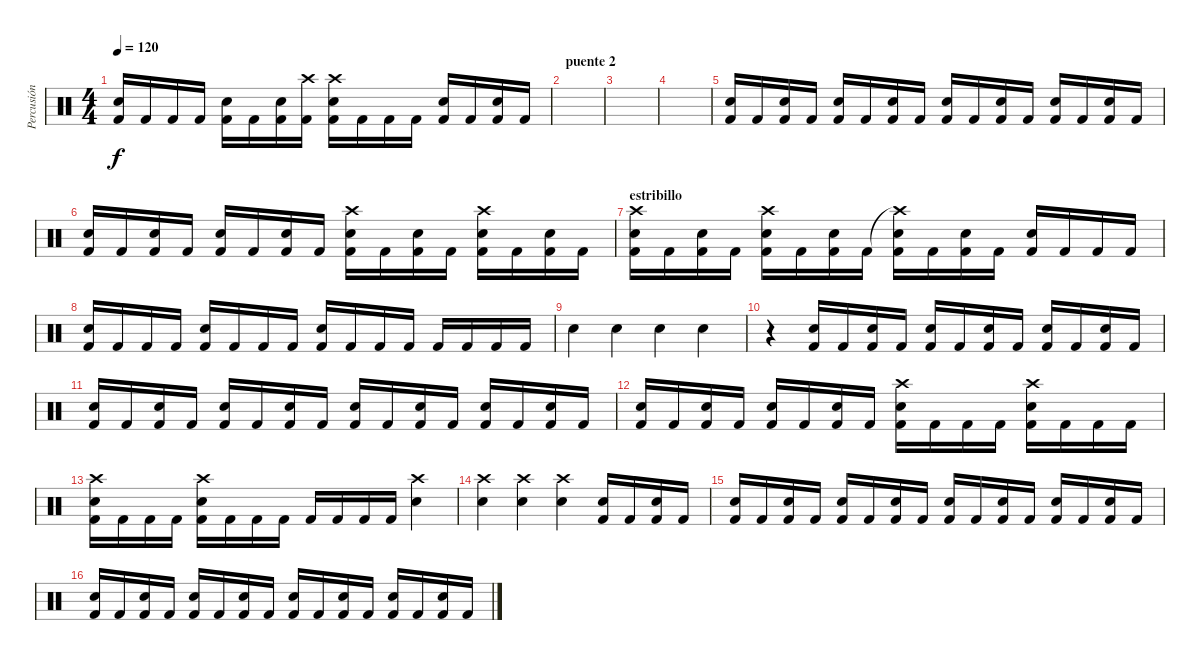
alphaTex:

\track ("Percusión" "Percusión") {instrument percussion}
\staff {score}
\articulation defaults
\ts (4 4)
\tempo 120
\clef neutral
\ks c
("Kick (hit) 2" "Electric Snare (hit)").16{dy f} "Kick (hit) 2".16 "Kick (hit) 2".16 "Kick (hit) 2".16 ("Kick (hit) 2" "Electric Snare (hit)").16 "Kick (hit) 2".16 ("Kick (hit) 2" "Electric Snare (hit)").16 ("Crash high (hit)" "Kick (hit) 2").16 ("Crash high (hit)" "Kick (hit) 2" "Electric Snare (hit)").16 "Kick (hit) 2".16 "Kick (hit) 2".16 "Kick (hit) 2".16 ("Kick (hit) 2" "Electric Snare (hit)").16 "Kick (hit) 2".16 ("Kick (hit) 2" "Electric Snare (hit)").16 "Kick (hit) 2".16 |
\section ("" "puente 2")
|
|
|
("Kick (hit) 2" "Electric Snare (hit)").16 "Kick (hit) 2".16 ("Kick (hit) 2" "Electric Snare (hit)").16 "Kick (hit) 2".16 ("Kick (hit) 2" "Electric Snare (hit)").16 "Kick (hit) 2".16 ("Kick (hit) 2" "Electric Snare (hit)").16 "Kick (hit) 2".16 ("Kick (hit) 2" "Electric Snare (hit)").16 "Kick (hit) 2".16 ("Kick (hit) 2" "Electric Snare (hit)").16 "Kick (hit) 2".16 ("Kick (hit) 2" "Electric Snare (hit)").16 "Kick (hit) 2".16 ("Kick (hit) 2" "Electric Snare (hit)").16 "Kick (hit) 2".16 |
("Kick (hit) 2" "Electric Snare (hit)").16 "Kick (hit) 2".16 ("Kick (hit) 2" "Electric Snare (hit)").16 "Kick (hit) 2".16 ("Kick (hit) 2" "Electric Snare (hit)").16 "Kick (hit) 2".16 ("Kick (hit) 2" "Electric Snare (hit)").16 "Kick (hit) 2".16 ("Crash high (hit)" "Kick (hit) 2" "Electric Snare (hit)").16 "Kick (hit) 2".16 ("Kick (hit) 2" "Electric Snare (hit)").16 "Kick (hit) 2".16 ("Crash high (hit)" "Kick (hit) 2" "Electric Snare (hit)").16 "Kick (hit) 2".16 ("Kick (hit) 2" "Electric Snare (hit)").16 "Kick (hit) 2".16 |
\section ("" "estribillo")
("Crash high (hit)" "Kick (hit) 2" "Electric Snare (hit)").16 "Kick (hit) 2".16 ("Kick (hit) 2" "Electric Snare (hit)").16 "Kick (hit) 2".16 ("Crash high (hit)" "Kick (hit) 2" "Electric Snare (hit)").16 "Kick (hit) 2".16 ("Kick (hit) 2" "Electric Snare (hit)").16 "Kick (hit) 2".16 ("Crash high (hit)"{t} "Kick (hit) 2" "Electric Snare (hit)").16 "Kick (hit) 2".16 ("Kick (hit) 2" "Electric Snare (hit)").16 "Kick (hit) 2".16 ("Kick (hit) 2" "Electric Snare (hit)").16 "Kick (hit) 2".16 "Kick (hit) 2".16 "Kick (hit) 2".16 |
("Kick (hit) 2" "Electric Snare (hit)").16 "Kick (hit) 2".16 "Kick (hit) 2".16 "Kick (hit) 2".16 ("Kick (hit) 2" "Electric Snare (hit)").16 "Kick (hit) 2".16 "Kick (hit) 2".16 "Kick (hit) 2".16 ("Kick (hit) 2" "Electric Snare (hit)").16 "Kick (hit) 2".16 "Kick (hit) 2".16 "Kick (hit) 2".16 "Kick (hit) 2".16 "Kick (hit) 2".16 "Kick (hit) 2".16 "Kick (hit) 2".16 |
"Electric Snare (hit)".4 "Electric Snare (hit)".4 "Electric Snare (hit)".4 "Electric Snare (hit)".4 |
r.4 ("Kick (hit) 2" "Electric Snare (hit)").16 "Kick (hit) 2".16 ("Kick (hit) 2" "Electric Snare (hit)").16 "Kick (hit) 2".16 ("Kick (hit) 2" "Electric Snare (hit)").16 "Kick (hit) 2".16 ("Kick (hit) 2" "Electric Snare (hit)").16 "Kick (hit) 2".16 ("Kick (hit) 2" "Electric Snare (hit)").16 "Kick (hit) 2".16 ("Kick (hit) 2" "Electric Snare (hit)").16 "Kick (hit) 2".16 |
("Kick (hit) 2" "Electric Snare (hit)").16 "Kick (hit) 2".16 ("Kick (hit) 2" "Electric Snare (hit)").16 "Kick (hit) 2".16 ("Kick (hit) 2" "Electric Snare (hit)").16 "Kick (hit) 2".16 ("Kick (hit) 2" "Electric Snare (hit)").16 "Kick (hit) 2".16 ("Kick (hit) 2" "Electric Snare (hit)").16 "Kick (hit) 2".16 ("Kick (hit) 2" "Electric Snare (hit)").16 "Kick (hit) 2".16 ("Kick (hit) 2" "Electric Snare (hit)").16 "Kick (hit) 2".16 ("Kick (hit) 2" "Electric Snare (hit)").16 "Kick (hit) 2".16 |
("Kick (hit) 2" "Electric Snare (hit)").16 "Kick (hit) 2".16 ("Kick (hit) 2" "Electric Snare (hit)").16 "Kick (hit) 2".16 ("Kick (hit) 2" "Electric Snare (hit)").16 "Kick (hit) 2".16 ("Kick (hit) 2" "Electric Snare (hit)").16 "Kick (hit) 2".16 ("Crash high (hit)" "Kick (hit) 2" "Electric Snare (hit)").16 "Kick (hit) 2".16 "Kick (hit) 2".16 "Kick (hit) 2".16 ("Crash high (hit)" "Kick (hit) 2" "Electric Snare (hit)").16 "Kick (hit) 2".16 "Kick (hit) 2".16 "Kick (hit) 2".16 |
("Crash high (hit)" "Kick (hit) 2" "Electric Snare (hit)").16 "Kick (hit) 2".16 "Kick (hit) 2".16 "Kick (hit) 2".16 ("Crash high (hit)" "Kick (hit) 2" "Electric Snare (hit)").16 "Kick (hit) 2".16 "Kick (hit) 2".16 "Kick (hit) 2".16 "Kick (hit) 2".16 "Kick (hit) 2".16 "Kick (hit) 2".16 "Kick (hit) 2".16 ("Crash high (hit)" "Electric Snare (hit)").4 |
("Crash high (hit)" "Electric Snare (hit)").4 ("Crash high (hit)" "Electric Snare (hit)").4 ("Crash high (hit)" "Electric Snare (hit)").4 ("Kick (hit) 2" "Electric Snare (hit)").16 "Kick (hit) 2".16 ("Kick (hit) 2" "Electric Snare (hit)").16 "Kick (hit) 2".16 |
("Kick (hit) 2" "Electric Snare (hit)").16 "Kick (hit) 2".16 ("Kick (hit) 2" "Electric Snare (hit)").16 "Kick (hit) 2".16 ("Kick (hit) 2" "Electric Snare (hit)").16 "Kick (hit) 2".16 ("Kick (hit) 2" "Electric Snare (hit)").16 "Kick (hit) 2".16 ("Kick (hit) 2" "Electric Snare (hit)").16 "Kick (hit) 2".16 ("Kick (hit) 2" "Electric Snare (hit)").16 "Kick (hit) 2".16 ("Kick (hit) 2" "Electric Snare (hit)").16 "Kick (hit) 2".16 ("Kick (hit) 2" "Electric Snare (hit)").16 "Kick (hit) 2".16 |
("Kick (hit) 2" "Electric Snare (hit)").16 "Kick (hit) 2".16 ("Kick (hit) 2" "Electric Snare (hit)").16 "Kick (hit) 2".16 ("Kick (hit) 2" "Electric Snare (hit)").16 "Kick (hit) 2".16 ("Kick (hit) 2" "Electric Snare (hit)").16 "Kick (hit) 2".16 ("Kick (hit) 2" "Electric Snare (hit)").16 "Kick (hit) 2".16 ("Kick (hit) 2" "Electric Snare (hit)").16 "Kick (hit) 2".16 ("Kick (hit) 2" "Electric Snare (hit)").16 "Kick (hit) 2".16 ("Kick (hit) 2" "Electric Snare (hit)").16 "Kick (hit) 2".16
